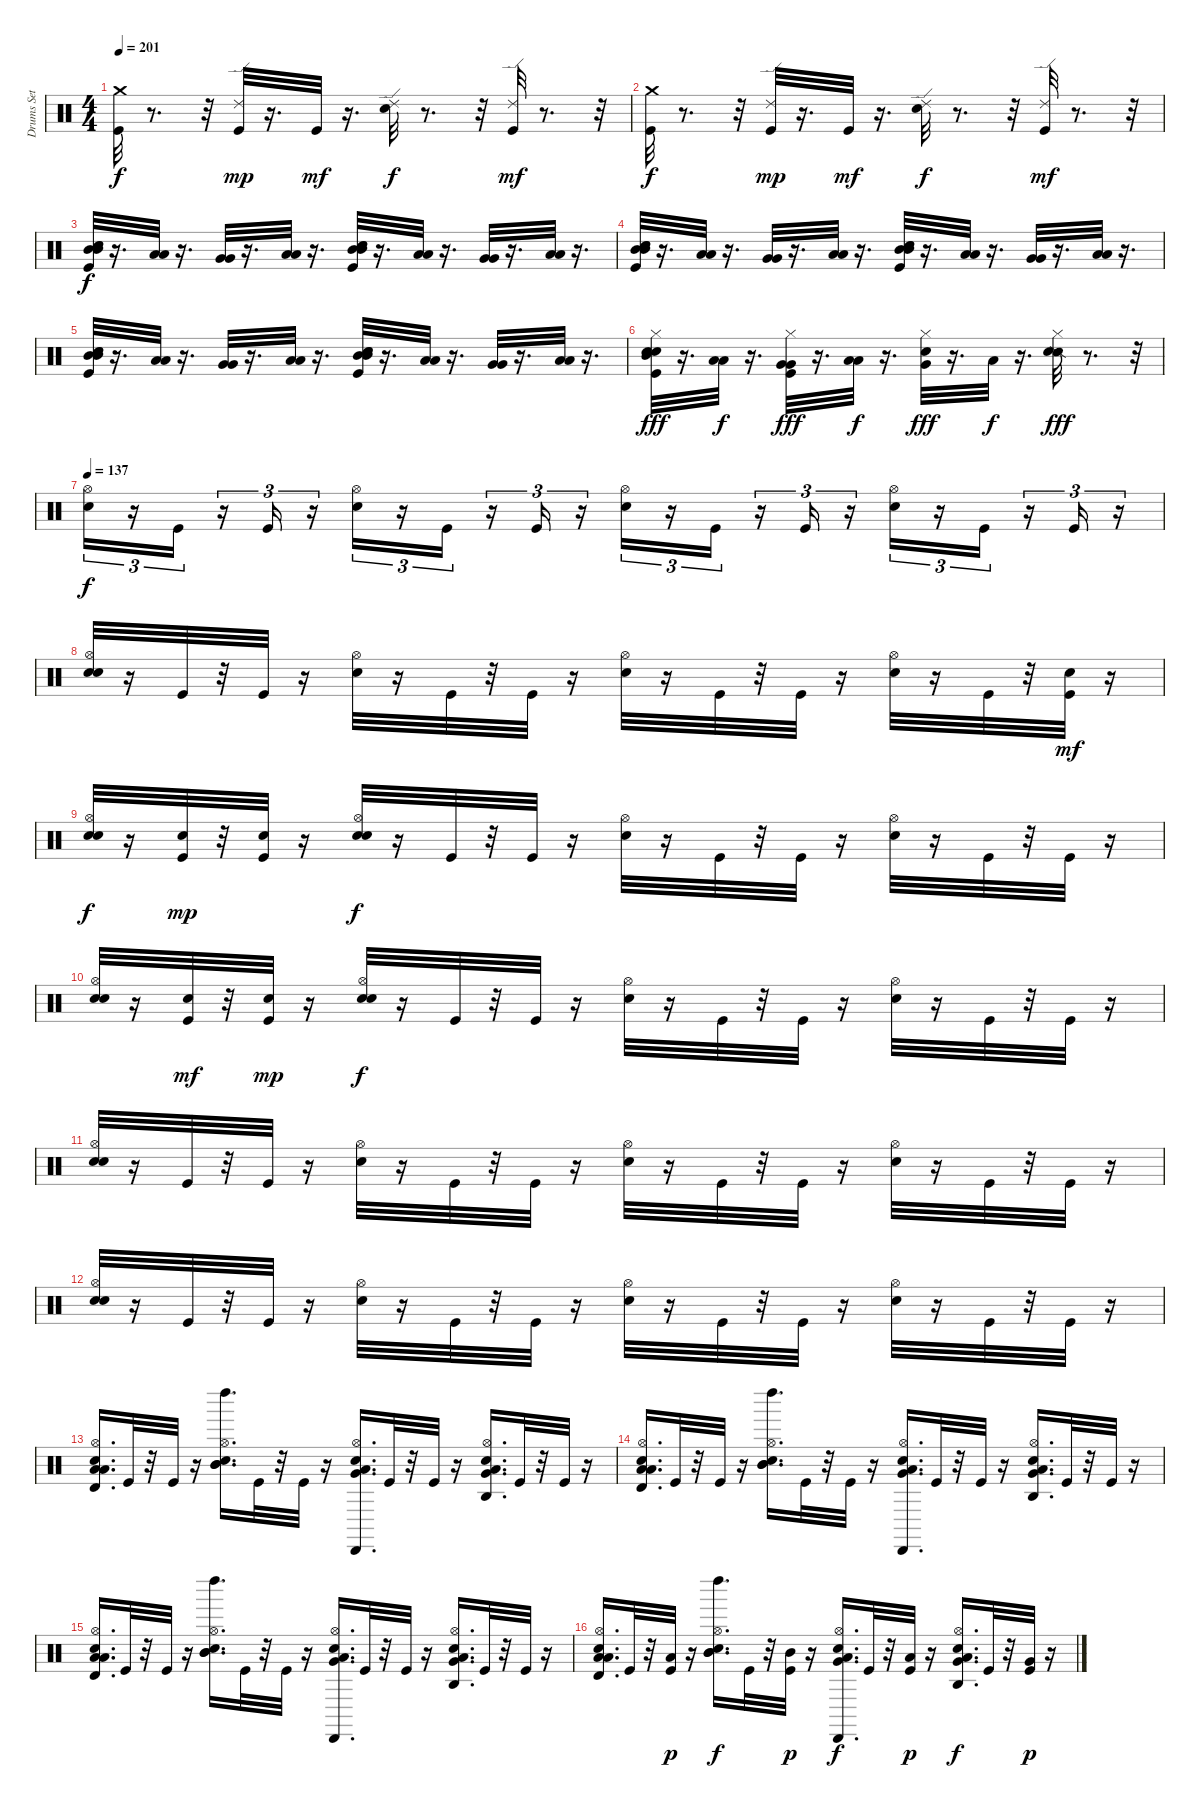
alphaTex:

\track ("Drums Set" "Drums Set") {instrument percussion}
\staff {score}
\articulation defaults
\ts (4 4)
\tempo 201
\clef neutral
\ks c
("Crash medium (hit)" "Kick (hit)").32{dy f} r.8{d} r.32 ("Ride (edge) 2" "Kick (hit)").32{dy mp} r.16{d} "Kick (hit)".32{dy mf} r.16{d} ("Ride (edge) 2" "Snare (hit) 2").32{dy f} r.8{d} r.32 ("Ride (edge) 2" "Kick (hit)").32{dy mf} r.8{d} r.32 |
("Crash medium (hit)" "Kick (hit)").32{dy f} r.8{d} r.32 ("Ride (edge) 2" "Kick (hit)").32{dy mp} r.16{d} "Kick (hit)".32{dy mf} r.16{d} ("Ride (edge) 2" "Snare (hit) 2").32{dy f} r.8{d} r.32 ("Ride (edge) 2" "Kick (hit)").32{dy mf} r.8{d} r.32 |
("Mid Tom (hit)" "Mid Tom (hit)" "Kick (hit)" "Snare (hit) 2" "Electric Snare (hit)").32{dy f} r.16{d} ("Low Tom (hit)" "Low Tom (hit)").32 r.16{d} ("Very Low Tom (hit)" "Very Low Tom (hit)").32 r.16{d} ("Low Floor Tom (hit)" "Low Floor Tom (hit)").32 r.16{d} ("Mid Tom (hit)" "Mid Tom (hit)" "Kick (hit)" "Snare (hit) 2" "Electric Snare (hit)").32 r.16{d} ("Low Tom (hit)" "Low Tom (hit)").32 r.16{d} ("Very Low Tom (hit)" "Very Low Tom (hit)").32 r.16{d} ("Low Floor Tom (hit)" "Low Floor Tom (hit)").32 r.16{d} |
("Mid Tom (hit)" "Mid Tom (hit)" "Kick (hit)" "Snare (hit) 2" "Electric Snare (hit)").32 r.16{d} ("Low Tom (hit)" "Low Tom (hit)").32 r.16{d} ("Very Low Tom (hit)" "Very Low Tom (hit)").32 r.16{d} ("Low Floor Tom (hit)" "Low Floor Tom (hit)").32 r.16{d} ("Mid Tom (hit)" "Mid Tom (hit)" "Kick (hit)" "Snare (hit) 2" "Electric Snare (hit)").32 r.16{d} ("Low Tom (hit)" "Low Tom (hit)").32 r.16{d} ("Very Low Tom (hit)" "Very Low Tom (hit)").32 r.16{d} ("Low Floor Tom (hit)" "Low Floor Tom (hit)").32 r.16{d} |
("Mid Tom (hit)" "Mid Tom (hit)" "Kick (hit)" "Snare (hit) 2" "Electric Snare (hit)").32 r.16{d} ("Low Tom (hit)" "Low Tom (hit)").32 r.16{d} ("Very Low Tom (hit)" "Very Low Tom (hit)").32 r.16{d} ("Low Floor Tom (hit)" "Low Floor Tom (hit)").32 r.16{d} ("Mid Tom (hit)" "Mid Tom (hit)" "Kick (hit)" "Snare (hit) 2" "Electric Snare (hit)").32 r.16{d} ("Low Tom (hit)" "Low Tom (hit)").32 r.16{d} ("Very Low Tom (hit)" "Very Low Tom (hit)").32 r.16{d} ("Low Floor Tom (hit)" "Low Floor Tom (hit)").32 r.16{d} |
("Mid Tom (hit)" "Hi-Hat (closed)" "Kick (hit)" "Electric Snare (hit)" "Snare (hit) 2").32{dy fff} r.16{d} ("Low Tom (hit)" "Low Tom (hit)").32{dy f} r.16{d} ("Very Low Tom (hit)" "Very Low Tom (hit)" "Hi-Hat (closed)" "Kick (hit)").32{dy fff} r.16{d} ("Low Floor Tom (hit)" "Low Floor Tom (hit)").32{dy f} r.16{d} ("Very Low Tom (hit)" "Hi-Hat (closed)" "Snare (hit) 2").32{dy fff} r.16{d} "Low Floor Tom (hit)".32{dy f} r.16{d} ("Snare (side stick) 2" "Hi-Hat (closed)" "Electric Snare (hit)").32{dy fff} r.8{d} r.32 |
\tempo 137
("Hi-Hat (open)" "Snare (hit) 2").16{tu (3 2) dy f} r.16{tu (3 2)} "Kick (hit)".16{tu (3 2)} r.16{tu (3 2)} "Kick (hit)".16{tu (3 2)} r.16{tu (3 2)} ("Hi-Hat (open)" "Snare (hit) 2").16{tu (3 2)} r.16{tu (3 2)} "Kick (hit)".16{tu (3 2)} r.16{tu (3 2)} "Kick (hit)".16{tu (3 2)} r.16{tu (3 2)} ("Hi-Hat (open)" "Snare (hit) 2").16{tu (3 2)} r.16{tu (3 2)} "Kick (hit)".16{tu (3 2)} r.16{tu (3 2)} "Kick (hit)".16{tu (3 2)} r.16{tu (3 2)} ("Hi-Hat (open)" "Snare (hit) 2").16{tu (3 2)} r.16{tu (3 2)} "Kick (hit)".16{tu (3 2)} r.16{tu (3 2)} "Kick (hit)".16{tu (3 2)} r.16{tu (3 2)} |
("Hi-Hat (open)" "Snare (hit) 2" "Hand Clap (hit)").32 r.16 "Kick (hit)".32 r.32 "Kick (hit)".32 r.16 ("Hi-Hat (open)" "Snare (hit) 2").32 r.16 "Kick (hit)".32 r.32 "Kick (hit)".32 r.16 ("Hi-Hat (open)" "Snare (hit) 2").32 r.16 "Kick (hit)".32 r.32 "Kick (hit)".32 r.16 ("Hi-Hat (open)" "Snare (hit) 2").32 r.16 "Kick (hit)".32 r.32 ("Kick (hit)" "Hand Clap (hit)").32{dy mf} r.16 |
("Hand Clap (hit)" "Hi-Hat (open)" "Snare (hit) 2").32{dy f} r.16 ("Hand Clap (hit)" "Kick (hit)").32{dy mp} r.32 ("Hand Clap (hit)" "Kick (hit)").32 r.16 ("Hand Clap (hit)" "Hi-Hat (open)" "Snare (hit) 2").32{dy f} r.16 "Kick (hit)".32 r.32 "Kick (hit)".32 r.16 ("Hi-Hat (open)" "Snare (hit) 2").32 r.16 "Kick (hit)".32 r.32 "Kick (hit)".32 r.16 ("Hi-Hat (open)" "Snare (hit) 2").32 r.16 "Kick (hit)".32 r.32 "Kick (hit)".32 r.16 |
("Hand Clap (hit)" "Hi-Hat (open)" "Snare (hit) 2").32 r.16 ("Hand Clap (hit)" "Kick (hit)").32{dy mf} r.32 ("Hand Clap (hit)" "Kick (hit)").32{dy mp} r.16 ("Hand Clap (hit)" "Hi-Hat (open)" "Snare (hit) 2").32{dy f} r.16 "Kick (hit)".32 r.32 "Kick (hit)".32 r.16 ("Hi-Hat (open)" "Snare (hit) 2").32 r.16 "Kick (hit)".32 r.32 "Kick (hit)".32 r.16 ("Hi-Hat (open)" "Snare (hit) 2").32 r.16 "Kick (hit)".32 r.32 "Kick (hit)".32 r.16 |
("Hand Clap (hit)" "Hi-Hat (open)" "Snare (hit) 2").32 r.16 "Kick (hit)".32 r.32 "Kick (hit)".32 r.16 ("Hi-Hat (open)" "Snare (hit) 2").32 r.16 "Kick (hit)".32 r.32 "Kick (hit)".32 r.16 ("Hi-Hat (open)" "Snare (hit) 2").32 r.16 "Kick (hit)".32 r.32 "Kick (hit)".32 r.16 ("Hi-Hat (open)" "Snare (hit) 2").32 r.16 "Kick (hit)".32 r.32 "Kick (hit)".32 r.16 |
("Hand Clap (hit)" "Hi-Hat (open)" "Snare (hit) 2").32 r.16 "Kick (hit)".32 r.32 "Kick (hit)".32 r.16 ("Hi-Hat (open)" "Snare (hit) 2").32 r.16 "Kick (hit)".32 r.32 "Kick (hit)".32 r.16 ("Hi-Hat (open)" "Snare (hit) 2").32 r.16 "Kick (hit)".32 r.32 "Kick (hit)".32 r.16 ("Hi-Hat (open)" "Snare (hit) 2").32 r.16 "Kick (hit)".32 r.32 "Kick (hit)".32 r.16 |
("Timbale high (hit)" "Low Floor Tom (hit)" "Low Floor Tom (hit)" "Hi-Hat (open)" "Snare (hit) 2").16{d} "Kick (hit)".32 r.32 "Kick (hit)".32 r.16 ("Left Maraca (hit)" "Mid Tom (hit)" "Mid Tom (hit)" "Hi-Hat (open)" "Snare (hit) 2").16{d} "Kick (hit)".32 r.32 "Kick (hit)".32 r.16 ("Cabasa (hit)" "Low Tom (hit)" "Very Low Tom (hit)" "Hi-Hat (open)" "Snare (hit) 2").16{d} "Kick (hit)".32 r.32 "Kick (hit)".32 r.16 ("Agogo high (hit)" "Very Low Tom (hit)" "Low Floor Tom (hit)" "Hi-Hat (open)" "Snare (hit) 2").16{d} "Kick (hit)".32 r.32 "Kick (hit)".32 r.16 |
("Timbale high (hit)" "Low Floor Tom (hit)" "Low Floor Tom (hit)" "Hi-Hat (open)" "Snare (hit) 2").16{d} "Kick (hit)".32 r.32 "Kick (hit)".32 r.16 ("Left Maraca (hit)" "Mid Tom (hit)" "Mid Tom (hit)" "Hi-Hat (open)" "Snare (hit) 2").16{d} "Kick (hit)".32 r.32 "Kick (hit)".32 r.16 ("Cabasa (hit)" "Low Tom (hit)" "Very Low Tom (hit)" "Hi-Hat (open)" "Snare (hit) 2").16{d} "Kick (hit)".32 r.32 "Kick (hit)".32 r.16 ("Agogo high (hit)" "Very Low Tom (hit)" "Low Floor Tom (hit)" "Hi-Hat (open)" "Snare (hit) 2").16{d} "Kick (hit)".32 r.32 "Kick (hit)".32 r.16 |
("Timbale high (hit)" "Low Floor Tom (hit)" "Low Floor Tom (hit)" "Hi-Hat (open)" "Snare (hit) 2").16{d} "Kick (hit)".32 r.32 "Kick (hit)".32 r.16 ("Left Maraca (hit)" "Mid Tom (hit)" "Mid Tom (hit)" "Hi-Hat (open)" "Snare (hit) 2").16{d} "Kick (hit)".32 r.32 "Kick (hit)".32 r.16 ("Cabasa (hit)" "Low Tom (hit)" "Very Low Tom (hit)" "Hi-Hat (open)" "Snare (hit) 2").16{d} "Kick (hit)".32 r.32 "Kick (hit)".32 r.16 ("Agogo high (hit)" "Very Low Tom (hit)" "Low Floor Tom (hit)" "Hi-Hat (open)" "Snare (hit) 2").16{d} "Kick (hit)".32 r.32 "Kick (hit)".32 r.16 |
("Timbale high (hit)" "Low Floor Tom (hit)" "Low Floor Tom (hit)" "Hi-Hat (open)" "Snare (hit) 2").16{d} "Kick (hit)".32 r.32 ("Low Floor Tom (hit)" "Kick (hit)").32{dy p} r.16 ("Left Maraca (hit)" "Mid Tom (hit)" "Mid Tom (hit)" "Hi-Hat (open)" "Snare (hit) 2").16{d dy f} "Kick (hit)".32 r.32 ("Mid Tom (hit)" "Kick (hit)").32{dy p} r.16 ("Cabasa (hit)" "Low Tom (hit)" "Very Low Tom (hit)" "Hi-Hat (open)" "Snare (hit) 2").16{d dy f} "Kick (hit)".32 r.32 ("Low Tom (hit)" "Kick (hit)").32{dy p} r.16 ("Agogo high (hit)" "Very Low Tom (hit)" "Low Floor Tom (hit)" "Hi-Hat (open)" "Snare (hit) 2").16{d dy f} "Kick (hit)".32 r.32 ("Very Low Tom (hit)" "Kick (hit)").32{dy p} r.16
